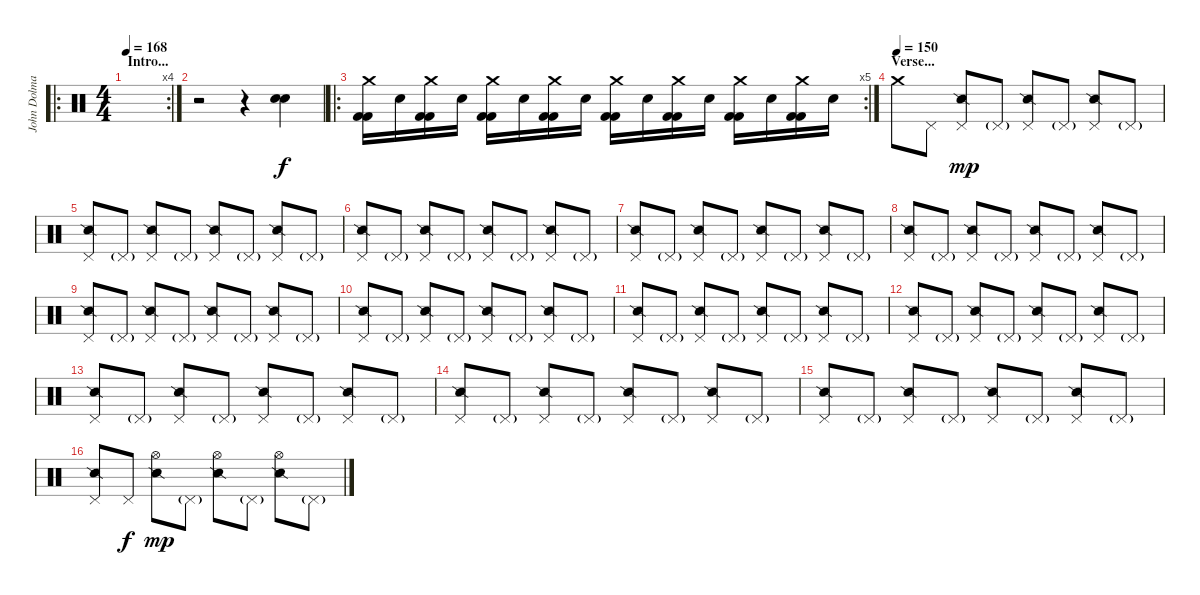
\track ("John Dolmayan" "John Dolma") {instrument percussion}
\staff {score}
\articulation defaults
\ro
\rc 4
\ts (4 4)
\section ("" "Intro...")
\tempo 168
\clef neutral
\ks c
|
r.2 r.4 ("Electric Snare (hit)" "Electric Snare (hit)").4 |
\ro
\rc 5
("Crash medium (hit)" "Kick (hit) 2" "Kick (hit) 2").16 "Electric Snare (hit)".16 ("Crash medium (hit)" "Kick (hit) 2" "Kick (hit) 2").16 "Electric Snare (hit)".16 ("Crash medium (hit)" "Kick (hit) 2" "Kick (hit) 2").16 "Electric Snare (hit)".16 ("Crash medium (hit)" "Kick (hit) 2" "Kick (hit) 2").16 "Electric Snare (hit)".16 ("Crash medium (hit)" "Kick (hit) 2" "Kick (hit) 2").16 "Electric Snare (hit)".16 ("Crash medium (hit)" "Kick (hit) 2" "Kick (hit) 2").16 "Electric Snare (hit)".16 ("Crash medium (hit)" "Kick (hit) 2" "Kick (hit) 2").16 "Electric Snare (hit)".16 ("Crash medium (hit)" "Kick (hit) 2" "Kick (hit) 2").16 "Electric Snare (hit)".16 |
\section ("" "Verse...")
\tempo (150)
"Crash medium (hit)".8 "Pedal Hi-Hat (hit)".8 ("Pedal Hi-Hat (hit)" "Snare (side stick) 2").8{dy mp} "Pedal Hi-Hat (hit)"{g}.8 ("Pedal Hi-Hat (hit)" "Snare (side stick) 2").8 "Pedal Hi-Hat (hit)"{g}.8 ("Pedal Hi-Hat (hit)" "Snare (side stick) 2").8 "Pedal Hi-Hat (hit)"{g}.8 |
("Pedal Hi-Hat (hit)" "Snare (side stick) 2").8 "Pedal Hi-Hat (hit)"{g}.8 ("Pedal Hi-Hat (hit)" "Snare (side stick) 2").8 "Pedal Hi-Hat (hit)"{g}.8 ("Pedal Hi-Hat (hit)" "Snare (side stick) 2").8 "Pedal Hi-Hat (hit)"{g}.8 ("Pedal Hi-Hat (hit)" "Snare (side stick) 2").8 "Pedal Hi-Hat (hit)"{g}.8 |
("Pedal Hi-Hat (hit)" "Snare (side stick) 2").8 "Pedal Hi-Hat (hit)"{g}.8 ("Pedal Hi-Hat (hit)" "Snare (side stick) 2").8 "Pedal Hi-Hat (hit)"{g}.8 ("Pedal Hi-Hat (hit)" "Snare (side stick) 2").8 "Pedal Hi-Hat (hit)"{g}.8 ("Pedal Hi-Hat (hit)" "Snare (side stick) 2").8 "Pedal Hi-Hat (hit)"{g}.8 |
("Pedal Hi-Hat (hit)" "Snare (side stick) 2").8 "Pedal Hi-Hat (hit)"{g}.8 ("Pedal Hi-Hat (hit)" "Snare (side stick) 2").8 "Pedal Hi-Hat (hit)"{g}.8 ("Pedal Hi-Hat (hit)" "Snare (side stick) 2").8 "Pedal Hi-Hat (hit)"{g}.8 ("Pedal Hi-Hat (hit)" "Snare (side stick) 2").8 "Pedal Hi-Hat (hit)"{g}.8 |
("Pedal Hi-Hat (hit)" "Snare (side stick) 2").8 "Pedal Hi-Hat (hit)"{g}.8 ("Pedal Hi-Hat (hit)" "Snare (side stick) 2").8 "Pedal Hi-Hat (hit)"{g}.8 ("Pedal Hi-Hat (hit)" "Snare (side stick) 2").8 "Pedal Hi-Hat (hit)"{g}.8 ("Pedal Hi-Hat (hit)" "Snare (side stick) 2").8 "Pedal Hi-Hat (hit)"{g}.8 |
("Pedal Hi-Hat (hit)" "Snare (side stick) 2").8 "Pedal Hi-Hat (hit)"{g}.8 ("Pedal Hi-Hat (hit)" "Snare (side stick) 2").8 "Pedal Hi-Hat (hit)"{g}.8 ("Pedal Hi-Hat (hit)" "Snare (side stick) 2").8 "Pedal Hi-Hat (hit)"{g}.8 ("Pedal Hi-Hat (hit)" "Snare (side stick) 2").8 "Pedal Hi-Hat (hit)"{g}.8 |
("Pedal Hi-Hat (hit)" "Snare (side stick) 2").8 "Pedal Hi-Hat (hit)"{g}.8 ("Pedal Hi-Hat (hit)" "Snare (side stick) 2").8 "Pedal Hi-Hat (hit)"{g}.8 ("Pedal Hi-Hat (hit)" "Snare (side stick) 2").8 "Pedal Hi-Hat (hit)"{g}.8 ("Pedal Hi-Hat (hit)" "Snare (side stick) 2").8 "Pedal Hi-Hat (hit)"{g}.8 |
("Pedal Hi-Hat (hit)" "Snare (side stick) 2").8 "Pedal Hi-Hat (hit)"{g}.8 ("Pedal Hi-Hat (hit)" "Snare (side stick) 2").8 "Pedal Hi-Hat (hit)"{g}.8 ("Pedal Hi-Hat (hit)" "Snare (side stick) 2").8 "Pedal Hi-Hat (hit)"{g}.8 ("Pedal Hi-Hat (hit)" "Snare (side stick) 2").8 "Pedal Hi-Hat (hit)"{g}.8 |
("Pedal Hi-Hat (hit)" "Snare (side stick) 2").8 "Pedal Hi-Hat (hit)"{g}.8 ("Pedal Hi-Hat (hit)" "Snare (side stick) 2").8 "Pedal Hi-Hat (hit)"{g}.8 ("Pedal Hi-Hat (hit)" "Snare (side stick) 2").8 "Pedal Hi-Hat (hit)"{g}.8 ("Pedal Hi-Hat (hit)" "Snare (side stick) 2").8 "Pedal Hi-Hat (hit)"{g}.8 |
("Pedal Hi-Hat (hit)" "Snare (side stick) 2").8 "Pedal Hi-Hat (hit)"{g}.8 ("Pedal Hi-Hat (hit)" "Snare (side stick) 2").8 "Pedal Hi-Hat (hit)"{g}.8 ("Pedal Hi-Hat (hit)" "Snare (side stick) 2").8 "Pedal Hi-Hat (hit)"{g}.8 ("Pedal Hi-Hat (hit)" "Snare (side stick) 2").8 "Pedal Hi-Hat (hit)"{g}.8 |
("Pedal Hi-Hat (hit)" "Snare (side stick) 2").8 "Pedal Hi-Hat (hit)"{g}.8 ("Pedal Hi-Hat (hit)" "Snare (side stick) 2").8 "Pedal Hi-Hat (hit)"{g}.8 ("Pedal Hi-Hat (hit)" "Snare (side stick) 2").8 "Pedal Hi-Hat (hit)"{g}.8 ("Pedal Hi-Hat (hit)" "Snare (side stick) 2").8 "Pedal Hi-Hat (hit)"{g}.8 |
("Pedal Hi-Hat (hit)" "Snare (side stick) 2").8 "Pedal Hi-Hat (hit)"{g}.8 ("Pedal Hi-Hat (hit)" "Snare (side stick) 2").8 "Pedal Hi-Hat (hit)"{g}.8 ("Pedal Hi-Hat (hit)" "Snare (side stick) 2").8 "Pedal Hi-Hat (hit)"{g}.8 ("Pedal Hi-Hat (hit)" "Snare (side stick) 2").8 "Pedal Hi-Hat (hit)"{g}.8 |
("Pedal Hi-Hat (hit)" "Snare (side stick) 2").8 "Pedal Hi-Hat (hit)".8{dy f} ("Hi-Hat (open)" "Snare (side stick) 2").8{dy mp} "Pedal Hi-Hat (hit)"{g}.8 ("Hi-Hat (open)" "Snare (side stick) 2").8 "Pedal Hi-Hat (hit)"{g}.8 ("Hi-Hat (open)" "Snare (side stick) 2").8 "Pedal Hi-Hat (hit)"{g}.8
